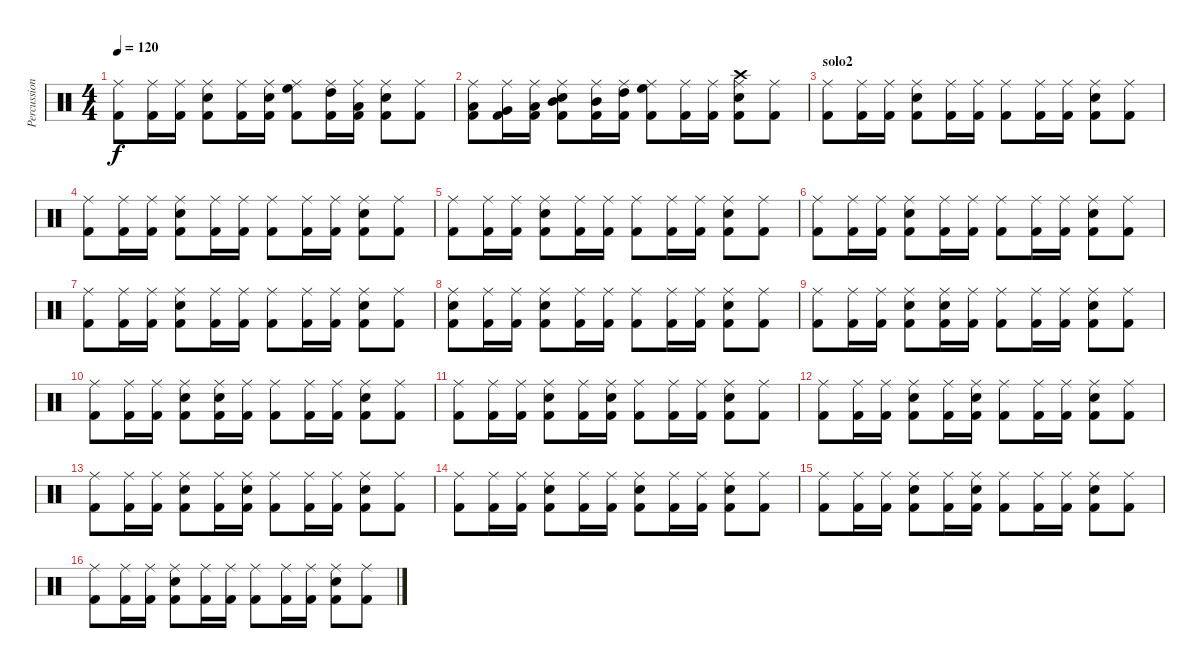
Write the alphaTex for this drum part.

\track ("Percussioni" "Percussion") {instrument percussion}
\staff {score}
\articulation defaults
\ts (4 4)
\tempo 120
\clef neutral
\ks c
("Ride (middle)" "Kick (hit) 2").8{dy f} ("Ride (middle)" "Kick (hit) 2").16 ("Ride (middle)" "Kick (hit) 2").16 ("Ride (middle)" "Kick (hit) 2" "Electric Snare (hit)").8 ("Ride (middle)" "Kick (hit) 2").16 ("Ride (middle)" "Kick (hit) 2" "Electric Snare (hit)").16 ("Ride (middle)" "Kick (hit) 2" "High Floor Tom (hit)").8 ("Ride (middle)" "Kick (hit) 2" "High Tom (hit)").16 ("Ride (middle)" "Kick (hit) 2" "Low Tom (hit)").16 ("Ride (middle)" "Kick (hit) 2" "Electric Snare (hit)").8 ("Ride (middle)" "Kick (hit) 2").8 |
("Ride (middle)" "Kick (hit) 2" "Low Floor Tom (hit)").8 ("Ride (middle)" "Kick (hit) 2" "Very Low Tom (hit)").16 ("Ride (middle)" "Kick (hit) 2" "Low Tom (hit)").16 ("Ride (middle)" "Kick (hit) 2" "Electric Snare (hit)" "Mid Tom (hit)").8 ("Ride (middle)" "Kick (hit) 2" "Mid Tom (hit)").16 ("Ride (middle)" "Kick (hit) 2" "High Tom (hit)").16 ("Ride (middle)" "Kick (hit) 2" "High Floor Tom (hit)").8 ("Ride (middle)" "Kick (hit) 2").16 ("Ride (middle)" "Kick (hit) 2").16 ("Ride (middle)" "Kick (hit) 2" "Electric Snare (hit)" "Crash high (hit)").8 ("Ride (middle)" "Kick (hit) 2").8 |
\section ("" "solo2")
("Ride (middle)" "Kick (hit) 2").8 ("Ride (middle)" "Kick (hit) 2").16 ("Ride (middle)" "Kick (hit) 2").16 ("Ride (middle)" "Kick (hit) 2" "Electric Snare (hit)").8 ("Ride (middle)" "Kick (hit) 2").16 ("Ride (middle)" "Kick (hit) 2").16 ("Ride (middle)" "Kick (hit) 2").8 ("Ride (middle)" "Kick (hit) 2").16 ("Ride (middle)" "Kick (hit) 2").16 ("Ride (middle)" "Kick (hit) 2" "Electric Snare (hit)").8 ("Ride (middle)" "Kick (hit) 2").8 |
("Ride (middle)" "Kick (hit) 2").8 ("Ride (middle)" "Kick (hit) 2").16 ("Ride (middle)" "Kick (hit) 2").16 ("Ride (middle)" "Kick (hit) 2" "Electric Snare (hit)").8 ("Ride (middle)" "Kick (hit) 2").16 ("Ride (middle)" "Kick (hit) 2").16 ("Ride (middle)" "Kick (hit) 2").8 ("Ride (middle)" "Kick (hit) 2").16 ("Ride (middle)" "Kick (hit) 2").16 ("Ride (middle)" "Kick (hit) 2" "Electric Snare (hit)").8 ("Ride (middle)" "Kick (hit) 2").8 |
("Ride (middle)" "Kick (hit) 2").8 ("Ride (middle)" "Kick (hit) 2").16 ("Ride (middle)" "Kick (hit) 2").16 ("Ride (middle)" "Kick (hit) 2" "Electric Snare (hit)").8 ("Ride (middle)" "Kick (hit) 2").16 ("Ride (middle)" "Kick (hit) 2").16 ("Ride (middle)" "Kick (hit) 2").8 ("Ride (middle)" "Kick (hit) 2").16 ("Ride (middle)" "Kick (hit) 2").16 ("Ride (middle)" "Kick (hit) 2" "Electric Snare (hit)").8 ("Ride (middle)" "Kick (hit) 2").8 |
("Ride (middle)" "Kick (hit) 2").8 ("Ride (middle)" "Kick (hit) 2").16 ("Ride (middle)" "Kick (hit) 2").16 ("Ride (middle)" "Kick (hit) 2" "Electric Snare (hit)").8 ("Ride (middle)" "Kick (hit) 2").16 ("Ride (middle)" "Kick (hit) 2").16 ("Ride (middle)" "Kick (hit) 2").8 ("Ride (middle)" "Kick (hit) 2").16 ("Ride (middle)" "Kick (hit) 2").16 ("Ride (middle)" "Kick (hit) 2" "Electric Snare (hit)").8 ("Ride (middle)" "Kick (hit) 2").8 |
("Ride (middle)" "Kick (hit) 2").8 ("Ride (middle)" "Kick (hit) 2").16 ("Ride (middle)" "Kick (hit) 2").16 ("Ride (middle)" "Kick (hit) 2" "Electric Snare (hit)").8 ("Ride (middle)" "Kick (hit) 2").16 ("Ride (middle)" "Kick (hit) 2").16 ("Ride (middle)" "Kick (hit) 2").8 ("Ride (middle)" "Kick (hit) 2").16 ("Ride (middle)" "Kick (hit) 2").16 ("Ride (middle)" "Kick (hit) 2" "Electric Snare (hit)").8 ("Ride (middle)" "Kick (hit) 2").8 |
("Ride (middle)" "Kick (hit) 2" "Electric Snare (hit)").8 ("Ride (middle)" "Kick (hit) 2").16 ("Ride (middle)" "Kick (hit) 2").16 ("Ride (middle)" "Kick (hit) 2" "Electric Snare (hit)").8 ("Ride (middle)" "Kick (hit) 2").16 ("Ride (middle)" "Kick (hit) 2").16 ("Ride (middle)" "Kick (hit) 2").8 ("Ride (middle)" "Kick (hit) 2").16 ("Ride (middle)" "Kick (hit) 2").16 ("Ride (middle)" "Kick (hit) 2" "Electric Snare (hit)").8 ("Ride (middle)" "Kick (hit) 2").8 |
("Ride (middle)" "Kick (hit) 2").8 ("Ride (middle)" "Kick (hit) 2").16 ("Ride (middle)" "Kick (hit) 2").16 ("Ride (middle)" "Kick (hit) 2" "Electric Snare (hit)").8 ("Ride (middle)" "Kick (hit) 2" "Electric Snare (hit)").16 ("Ride (middle)" "Kick (hit) 2").16 ("Ride (middle)" "Kick (hit) 2").8 ("Ride (middle)" "Kick (hit) 2").16 ("Ride (middle)" "Kick (hit) 2").16 ("Ride (middle)" "Kick (hit) 2" "Electric Snare (hit)").8 ("Ride (middle)" "Kick (hit) 2").8 |
("Ride (middle)" "Kick (hit) 2").8 ("Ride (middle)" "Kick (hit) 2").16 ("Ride (middle)" "Kick (hit) 2").16 ("Ride (middle)" "Kick (hit) 2" "Electric Snare (hit)").8 ("Ride (middle)" "Kick (hit) 2" "Electric Snare (hit)").16 ("Ride (middle)" "Kick (hit) 2").16 ("Ride (middle)" "Kick (hit) 2").8 ("Ride (middle)" "Kick (hit) 2").16 ("Ride (middle)" "Kick (hit) 2").16 ("Ride (middle)" "Kick (hit) 2" "Electric Snare (hit)").8 ("Ride (middle)" "Kick (hit) 2").8 |
("Ride (middle)" "Kick (hit) 2").8 ("Ride (middle)" "Kick (hit) 2").16 ("Ride (middle)" "Kick (hit) 2").16 ("Ride (middle)" "Kick (hit) 2" "Electric Snare (hit)").8 ("Ride (middle)" "Kick (hit) 2").16 ("Ride (middle)" "Kick (hit) 2" "Electric Snare (hit)").16 ("Ride (middle)" "Kick (hit) 2").8 ("Ride (middle)" "Kick (hit) 2").16 ("Ride (middle)" "Kick (hit) 2").16 ("Ride (middle)" "Kick (hit) 2" "Electric Snare (hit)").8 ("Ride (middle)" "Kick (hit) 2").8 |
("Ride (middle)" "Kick (hit) 2").8 ("Ride (middle)" "Kick (hit) 2").16 ("Ride (middle)" "Kick (hit) 2").16 ("Ride (middle)" "Kick (hit) 2" "Electric Snare (hit)").8 ("Ride (middle)" "Kick (hit) 2").16 ("Ride (middle)" "Kick (hit) 2" "Electric Snare (hit)").16 ("Ride (middle)" "Kick (hit) 2").8 ("Ride (middle)" "Kick (hit) 2").16 ("Ride (middle)" "Kick (hit) 2").16 ("Ride (middle)" "Kick (hit) 2" "Electric Snare (hit)").8 ("Ride (middle)" "Kick (hit) 2").8 |
("Ride (middle)" "Kick (hit) 2").8 ("Ride (middle)" "Kick (hit) 2").16 ("Ride (middle)" "Kick (hit) 2").16 ("Ride (middle)" "Kick (hit) 2" "Electric Snare (hit)").8 ("Ride (middle)" "Kick (hit) 2").16 ("Ride (middle)" "Kick (hit) 2" "Electric Snare (hit)").16 ("Ride (middle)" "Kick (hit) 2").8 ("Ride (middle)" "Kick (hit) 2").16 ("Ride (middle)" "Kick (hit) 2").16 ("Ride (middle)" "Kick (hit) 2" "Electric Snare (hit)").8 ("Ride (middle)" "Kick (hit) 2").8 |
("Ride (middle)" "Kick (hit) 2").8 ("Ride (middle)" "Kick (hit) 2").16 ("Ride (middle)" "Kick (hit) 2").16 ("Ride (middle)" "Kick (hit) 2" "Electric Snare (hit)").8 ("Ride (middle)" "Kick (hit) 2").16 ("Ride (middle)" "Kick (hit) 2").16 ("Ride (middle)" "Kick (hit) 2" "Electric Snare (hit)").8 ("Ride (middle)" "Kick (hit) 2").16 ("Ride (middle)" "Kick (hit) 2").16 ("Ride (middle)" "Kick (hit) 2" "Electric Snare (hit)").8 ("Ride (middle)" "Kick (hit) 2").8 |
("Ride (middle)" "Kick (hit) 2").8 ("Ride (middle)" "Kick (hit) 2").16 ("Ride (middle)" "Kick (hit) 2").16 ("Ride (middle)" "Kick (hit) 2" "Electric Snare (hit)").8 ("Ride (middle)" "Kick (hit) 2").16 ("Ride (middle)" "Kick (hit) 2" "Electric Snare (hit)").16 ("Ride (middle)" "Kick (hit) 2").8 ("Ride (middle)" "Kick (hit) 2").16 ("Ride (middle)" "Kick (hit) 2").16 ("Ride (middle)" "Kick (hit) 2" "Electric Snare (hit)").8 ("Ride (middle)" "Kick (hit) 2").8 |
("Ride (middle)" "Kick (hit) 2").8 ("Ride (middle)" "Kick (hit) 2").16 ("Ride (middle)" "Kick (hit) 2").16 ("Ride (middle)" "Kick (hit) 2" "Electric Snare (hit)").8 ("Ride (middle)" "Kick (hit) 2").16 ("Ride (middle)" "Kick (hit) 2").16 ("Ride (middle)" "Kick (hit) 2").8 ("Ride (middle)" "Kick (hit) 2").16 ("Ride (middle)" "Kick (hit) 2").16 ("Ride (middle)" "Kick (hit) 2" "Electric Snare (hit)").8 ("Ride (middle)" "Kick (hit) 2").8
